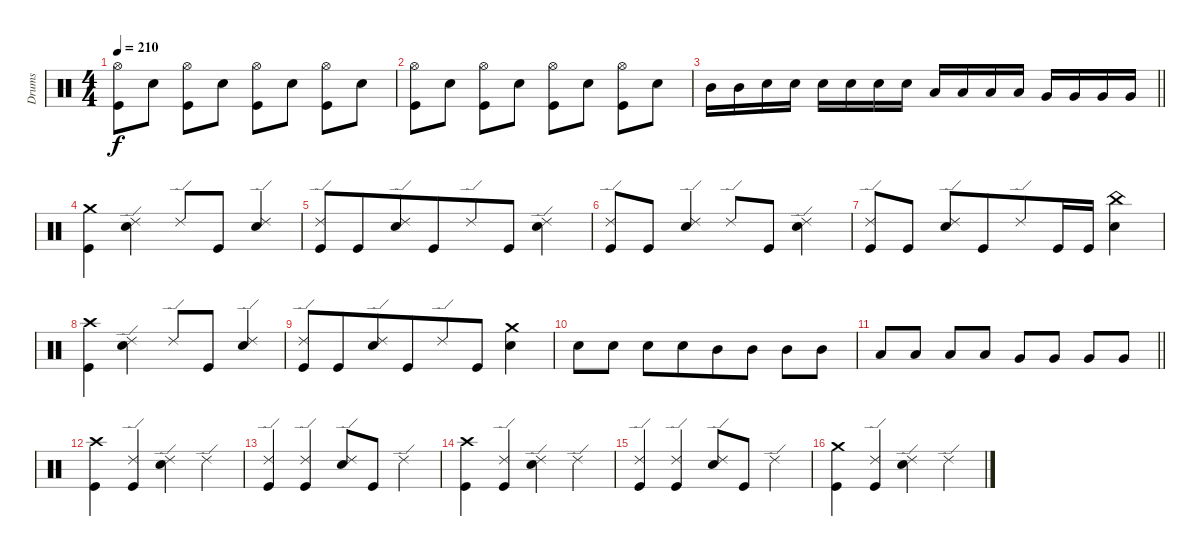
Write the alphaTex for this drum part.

\track ("Drums" "Drums") {instrument percussion}
\staff {score}
\articulation defaults
\ts (4 4)
\tempo 210
\clef neutral
\ks c
("Hi-Hat (open)" "Kick (hit)").8{dy f} "Electric Snare (hit)".8 ("Hi-Hat (open)" "Kick (hit)").8 "Electric Snare (hit)".8 ("Hi-Hat (open)" "Kick (hit)").8 "Electric Snare (hit)".8 ("Hi-Hat (open)" "Kick (hit)").8 "Electric Snare (hit)".8 |
("Hi-Hat (open)" "Kick (hit)").8 "Electric Snare (hit)".8 ("Hi-Hat (open)" "Kick (hit)").8 "Electric Snare (hit)".8 ("Hi-Hat (open)" "Kick (hit)").8 "Electric Snare (hit)".8 ("Hi-Hat (open)" "Kick (hit)").8 "Electric Snare (hit)".8 |
\barLineRight lightlight "Mid Tom (hit)".16{beam merge} "Mid Tom (hit)".16 "Electric Snare (hit)".16 "Electric Snare (hit)".16 "Electric Snare (hit)".16 "Electric Snare (hit)".16{beam merge} "Electric Snare (hit)".16 "Electric Snare (hit)".16 "Low Tom (hit)".16 "Low Tom (hit)".16 "Low Tom (hit)".16{beam merge} "Low Tom (hit)".16 "Very Low Tom (hit)".16 "Very Low Tom (hit)".16 "Very Low Tom (hit)".16 "Very Low Tom (hit)".16
|
("Crash medium (hit)" "Kick (hit)").4 ("Ride (edge) 2" "Electric Snare (hit)").4 "Ride (edge) 2".8 "Kick (hit)".8{beam merge} ("Ride (edge) 2" "Electric Snare (hit)").4 |
("Ride (edge) 2" "Kick (hit)").8 "Kick (hit)".8{beam merge} ("Ride (edge) 2" "Electric Snare (hit)").8{beam merge} "Kick (hit)".8{beam merge} "Ride (edge) 2".8 "Kick (hit)".8 ("Ride (edge) 2" "Electric Snare (hit)").4 |
("Ride (edge) 2" "Kick (hit)").8 "Kick (hit)".8 ("Ride (edge) 2" "Electric Snare (hit)").4{beam merge} "Ride (edge) 2".8 "Kick (hit)".8 ("Ride (edge) 2" "Electric Snare (hit)").4 |
("Ride (edge) 2" "Kick (hit)").8 "Kick (hit)".8 ("Ride (edge) 2" "Electric Snare (hit)").8 "Kick (hit)".8{beam merge} "Ride (edge) 2".8 "Kick (hit)".16 "Kick (hit)".16 ("China (hit)" "Electric Snare (hit)").4 |
("Crash high (hit)" "Kick (hit)").4 ("Ride (edge) 2" "Electric Snare (hit)").4 "Ride (edge) 2".8 "Kick (hit)".8{beam merge} ("Ride (edge) 2" "Electric Snare (hit)").4 |
("Ride (edge) 2" "Kick (hit)").8 "Kick (hit)".8{beam merge} ("Ride (edge) 2" "Electric Snare (hit)").8{beam merge} "Kick (hit)".8{beam merge} "Ride (edge) 2".8 "Kick (hit)".8 ("Crash medium (hit)" "Electric Snare (hit)").4 |
"Electric Snare (hit)".8{beam merge} "Electric Snare (hit)".8 "Electric Snare (hit)".8 "Electric Snare (hit)".8{beam merge} "Mid Tom (hit)".8 "Mid Tom (hit)".8 "Mid Tom (hit)".8 "Mid Tom (hit)".8 |
\barLineRight lightlight "Low Tom (hit)".8 "Low Tom (hit)".8 "Low Tom (hit)".8 "Low Tom (hit)".8 "Very Low Tom (hit)".8{beam merge} "Very Low Tom (hit)".8 "Very Low Tom (hit)".8 "Very Low Tom (hit)".8
|
("Crash high (hit)" "Kick (hit)").4 ("Ride (edge) 2" "Kick (hit)").4 ("Ride (edge) 2" "Electric Snare (hit)").4{beam merge} "Ride (edge) 2".4 |
("Ride (edge) 2" "Kick (hit)").4 ("Ride (edge) 2" "Kick (hit)").4 ("Ride (edge) 2" "Electric Snare (hit)").8 "Kick (hit)".8 "Ride (edge) 2".4 |
("Crash high (hit)" "Kick (hit)").4 ("Ride (edge) 2" "Kick (hit)").4 ("Ride (edge) 2" "Electric Snare (hit)").4{beam merge} "Ride (edge) 2".4 |
("Ride (edge) 2" "Kick (hit)").4 ("Ride (edge) 2" "Kick (hit)").4 ("Ride (edge) 2" "Electric Snare (hit)").8 "Kick (hit)".8 "Ride (edge) 2".4 |
("Crash medium (hit)" "Kick (hit)").4 ("Ride (edge) 2" "Kick (hit)").4 ("Ride (edge) 2" "Electric Snare (hit)").4{beam merge} "Ride (edge) 2".4
